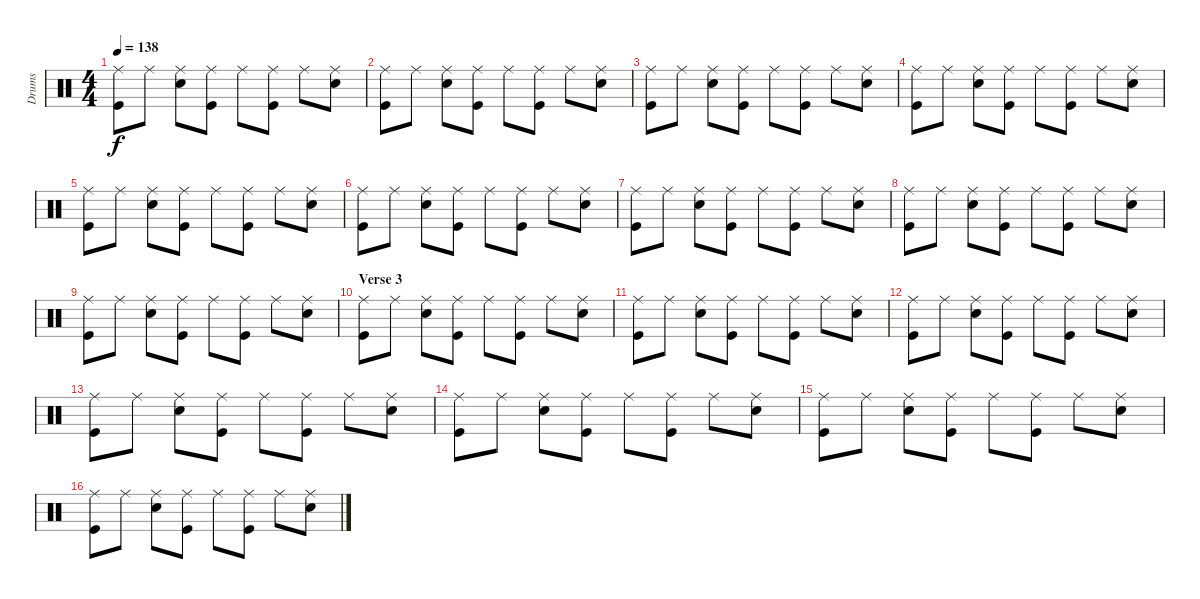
\track ("Drums" "Drums") {instrument percussion}
\staff {score}
\articulation defaults
\ts (4 4)
\tempo 138
\clef neutral
\ks c
("Ride (middle)" "Kick (hit)").8{dy f} "Ride (middle)".8 ("Ride (middle)" "Snare (hit) 2").8 ("Ride (middle)" "Kick (hit)").8 "Ride (middle)".8 ("Ride (middle)" "Kick (hit)").8 "Ride (middle)".8 ("Ride (middle)" "Snare (hit) 2").8 |
("Ride (middle)" "Kick (hit)").8 "Ride (middle)".8 ("Ride (middle)" "Snare (hit) 2").8 ("Ride (middle)" "Kick (hit)").8 "Ride (middle)".8 ("Ride (middle)" "Kick (hit)").8 "Ride (middle)".8 ("Ride (middle)" "Snare (hit) 2").8 |
("Ride (middle)" "Kick (hit)").8 "Ride (middle)".8 ("Ride (middle)" "Snare (hit) 2").8 ("Ride (middle)" "Kick (hit)").8 "Ride (middle)".8 ("Ride (middle)" "Kick (hit)").8 "Ride (middle)".8 ("Ride (middle)" "Snare (hit) 2").8 |
("Ride (middle)" "Kick (hit)").8 "Ride (middle)".8 ("Ride (middle)" "Snare (hit) 2").8 ("Ride (middle)" "Kick (hit)").8 "Ride (middle)".8 ("Ride (middle)" "Kick (hit)").8 "Ride (middle)".8 ("Ride (middle)" "Snare (hit) 2").8 |
("Ride (middle)" "Kick (hit)").8 "Ride (middle)".8 ("Ride (middle)" "Snare (hit) 2").8 ("Ride (middle)" "Kick (hit)").8 "Ride (middle)".8 ("Ride (middle)" "Kick (hit)").8 "Ride (middle)".8 ("Ride (middle)" "Snare (hit) 2").8 |
("Ride (middle)" "Kick (hit)").8 "Ride (middle)".8 ("Ride (middle)" "Snare (hit) 2").8 ("Ride (middle)" "Kick (hit)").8 "Ride (middle)".8 ("Ride (middle)" "Kick (hit)").8 "Ride (middle)".8 ("Ride (middle)" "Snare (hit) 2").8 |
("Ride (middle)" "Kick (hit)").8 "Ride (middle)".8 ("Ride (middle)" "Snare (hit) 2").8 ("Ride (middle)" "Kick (hit)").8 "Ride (middle)".8 ("Ride (middle)" "Kick (hit)").8 "Ride (middle)".8 ("Ride (middle)" "Snare (hit) 2").8 |
("Ride (middle)" "Kick (hit)").8 "Ride (middle)".8 ("Ride (middle)" "Snare (hit) 2").8 ("Ride (middle)" "Kick (hit)").8 "Ride (middle)".8 ("Ride (middle)" "Kick (hit)").8 "Ride (middle)".8 ("Ride (middle)" "Snare (hit) 2").8 |
("Ride (middle)" "Kick (hit)").8 "Ride (middle)".8 ("Ride (middle)" "Snare (hit) 2").8 ("Ride (middle)" "Kick (hit)").8 "Ride (middle)".8 ("Ride (middle)" "Kick (hit)").8 "Ride (middle)".8 ("Ride (middle)" "Snare (hit) 2").8 |
\section ("" "Verse 3")
("Ride (middle)" "Kick (hit)").8 "Ride (middle)".8 ("Ride (middle)" "Snare (hit) 2").8 ("Ride (middle)" "Kick (hit)").8 "Ride (middle)".8 ("Ride (middle)" "Kick (hit)").8 "Ride (middle)".8 ("Ride (middle)" "Snare (hit) 2").8 |
("Ride (middle)" "Kick (hit)").8 "Ride (middle)".8 ("Ride (middle)" "Snare (hit) 2").8 ("Ride (middle)" "Kick (hit)").8 "Ride (middle)".8 ("Ride (middle)" "Kick (hit)").8 "Ride (middle)".8 ("Ride (middle)" "Snare (hit) 2").8 |
("Ride (middle)" "Kick (hit)").8 "Ride (middle)".8 ("Ride (middle)" "Snare (hit) 2").8 ("Ride (middle)" "Kick (hit)").8 "Ride (middle)".8 ("Ride (middle)" "Kick (hit)").8 "Ride (middle)".8 ("Ride (middle)" "Snare (hit) 2").8 |
("Ride (middle)" "Kick (hit)").8 "Ride (middle)".8 ("Ride (middle)" "Snare (hit) 2").8 ("Ride (middle)" "Kick (hit)").8 "Ride (middle)".8 ("Ride (middle)" "Kick (hit)").8 "Ride (middle)".8 ("Ride (middle)" "Snare (hit) 2").8 |
("Ride (middle)" "Kick (hit)").8 "Ride (middle)".8 ("Ride (middle)" "Snare (hit) 2").8 ("Ride (middle)" "Kick (hit)").8 "Ride (middle)".8 ("Ride (middle)" "Kick (hit)").8 "Ride (middle)".8 ("Ride (middle)" "Snare (hit) 2").8 |
("Ride (middle)" "Kick (hit)").8 "Ride (middle)".8 ("Ride (middle)" "Snare (hit) 2").8 ("Ride (middle)" "Kick (hit)").8 "Ride (middle)".8 ("Ride (middle)" "Kick (hit)").8 "Ride (middle)".8 ("Ride (middle)" "Snare (hit) 2").8 |
("Ride (middle)" "Kick (hit)").8 "Ride (middle)".8 ("Ride (middle)" "Snare (hit) 2").8 ("Ride (middle)" "Kick (hit)").8 "Ride (middle)".8 ("Ride (middle)" "Kick (hit)").8 "Ride (middle)".8 ("Ride (middle)" "Snare (hit) 2").8
